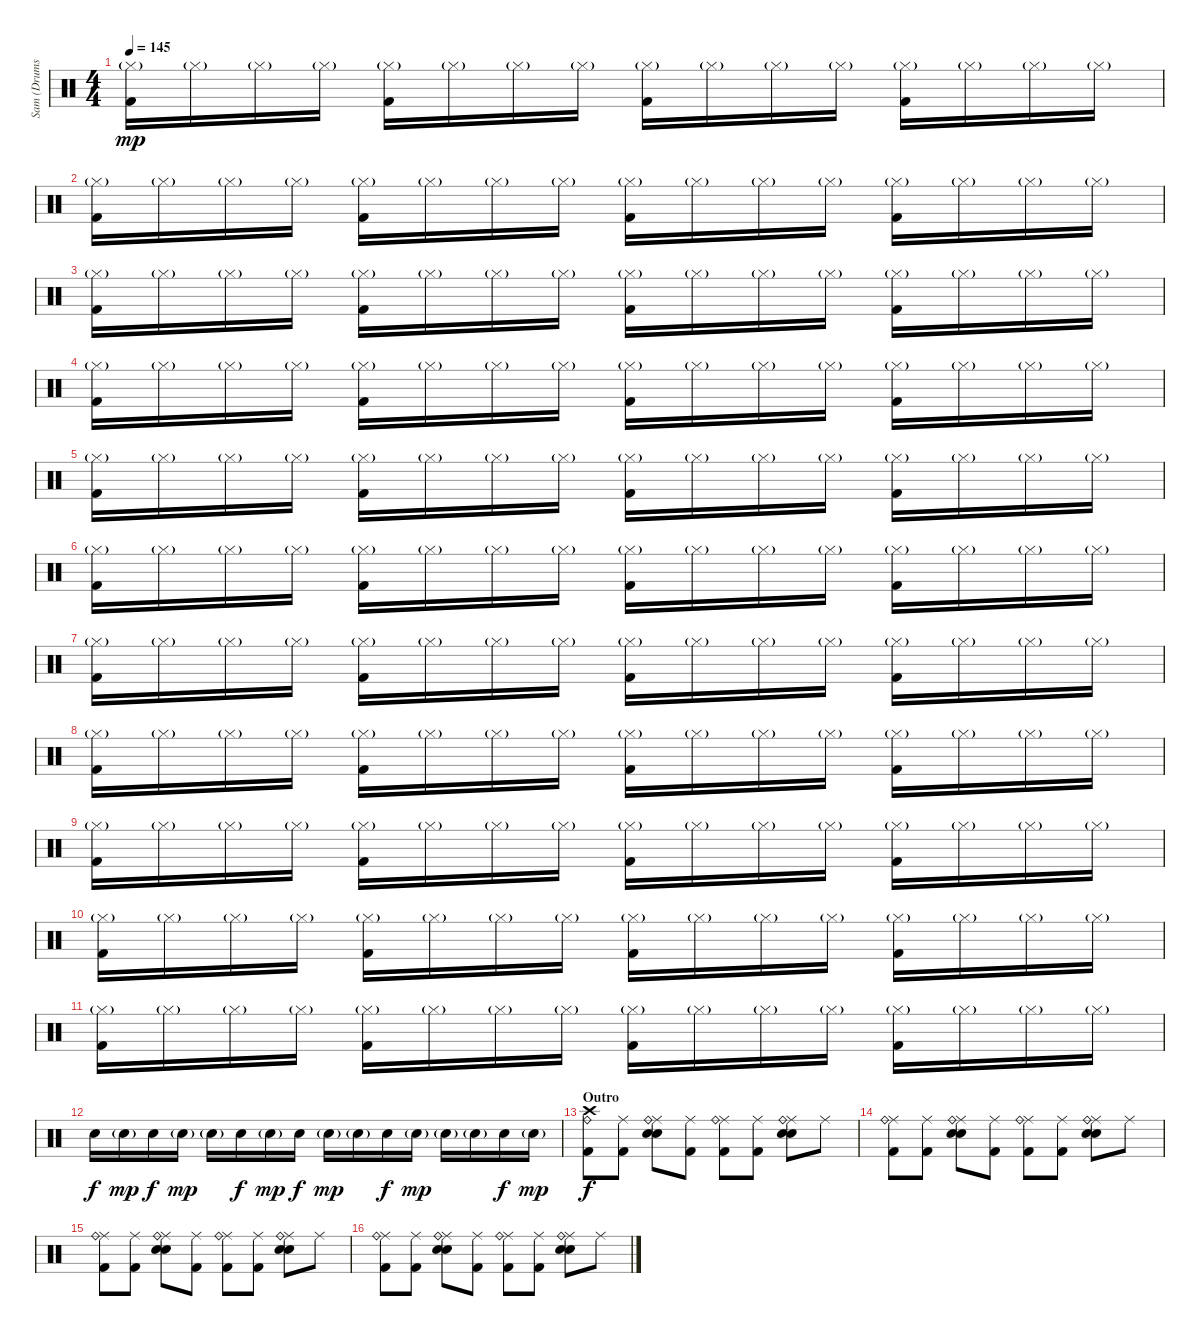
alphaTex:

\track ("Sam (Drums)" "Sam (Drums") {instrument percussion}
\staff {score}
\articulation defaults
\ts (4 4)
\tempo 145
\clef neutral
\ks c
("Hi-Hat (closed)"{g} "Kick (hit) 2").16{dy mp} "Hi-Hat (closed)"{g}.16 "Hi-Hat (closed)"{g}.16 "Hi-Hat (closed)"{g}.16 ("Hi-Hat (closed)"{g} "Kick (hit) 2").16 "Hi-Hat (closed)"{g}.16 "Hi-Hat (closed)"{g}.16 "Hi-Hat (closed)"{g}.16 ("Hi-Hat (closed)"{g} "Kick (hit) 2").16 "Hi-Hat (closed)"{g}.16 "Hi-Hat (closed)"{g}.16 "Hi-Hat (closed)"{g}.16 ("Hi-Hat (closed)"{g} "Kick (hit) 2").16 "Hi-Hat (closed)"{g}.16 "Hi-Hat (closed)"{g}.16 "Hi-Hat (closed)"{g}.16 |
("Hi-Hat (closed)"{g} "Kick (hit) 2").16 "Hi-Hat (closed)"{g}.16 "Hi-Hat (closed)"{g}.16 "Hi-Hat (closed)"{g}.16 ("Hi-Hat (closed)"{g} "Kick (hit) 2").16 "Hi-Hat (closed)"{g}.16 "Hi-Hat (closed)"{g}.16 "Hi-Hat (closed)"{g}.16 ("Hi-Hat (closed)"{g} "Kick (hit) 2").16 "Hi-Hat (closed)"{g}.16 "Hi-Hat (closed)"{g}.16 "Hi-Hat (closed)"{g}.16 ("Hi-Hat (closed)"{g} "Kick (hit) 2").16 "Hi-Hat (closed)"{g}.16 "Hi-Hat (closed)"{g}.16 "Hi-Hat (closed)"{g}.16 |
("Hi-Hat (closed)"{g} "Kick (hit) 2").16 "Hi-Hat (closed)"{g}.16 "Hi-Hat (closed)"{g}.16 "Hi-Hat (closed)"{g}.16 ("Hi-Hat (closed)"{g} "Kick (hit) 2").16 "Hi-Hat (closed)"{g}.16 "Hi-Hat (closed)"{g}.16 "Hi-Hat (closed)"{g}.16 ("Hi-Hat (closed)"{g} "Kick (hit) 2").16 "Hi-Hat (closed)"{g}.16 "Hi-Hat (closed)"{g}.16 "Hi-Hat (closed)"{g}.16 ("Hi-Hat (closed)"{g} "Kick (hit) 2").16 "Hi-Hat (closed)"{g}.16 "Hi-Hat (closed)"{g}.16 "Hi-Hat (closed)"{g}.16 |
("Hi-Hat (closed)"{g} "Kick (hit) 2").16 "Hi-Hat (closed)"{g}.16 "Hi-Hat (closed)"{g}.16 "Hi-Hat (closed)"{g}.16 ("Hi-Hat (closed)"{g} "Kick (hit) 2").16 "Hi-Hat (closed)"{g}.16 "Hi-Hat (closed)"{g}.16 "Hi-Hat (closed)"{g}.16 ("Hi-Hat (closed)"{g} "Kick (hit) 2").16 "Hi-Hat (closed)"{g}.16 "Hi-Hat (closed)"{g}.16 "Hi-Hat (closed)"{g}.16 ("Hi-Hat (closed)"{g} "Kick (hit) 2").16 "Hi-Hat (closed)"{g}.16 "Hi-Hat (closed)"{g}.16 "Hi-Hat (closed)"{g}.16 |
("Hi-Hat (closed)"{g} "Kick (hit) 2").16 "Hi-Hat (closed)"{g}.16 "Hi-Hat (closed)"{g}.16 "Hi-Hat (closed)"{g}.16 ("Hi-Hat (closed)"{g} "Kick (hit) 2").16 "Hi-Hat (closed)"{g}.16 "Hi-Hat (closed)"{g}.16 "Hi-Hat (closed)"{g}.16 ("Hi-Hat (closed)"{g} "Kick (hit) 2").16 "Hi-Hat (closed)"{g}.16 "Hi-Hat (closed)"{g}.16 "Hi-Hat (closed)"{g}.16 ("Hi-Hat (closed)"{g} "Kick (hit) 2").16 "Hi-Hat (closed)"{g}.16 "Hi-Hat (closed)"{g}.16 "Hi-Hat (closed)"{g}.16 |
("Hi-Hat (closed)"{g} "Kick (hit) 2").16 "Hi-Hat (closed)"{g}.16 "Hi-Hat (closed)"{g}.16 "Hi-Hat (closed)"{g}.16 ("Hi-Hat (closed)"{g} "Kick (hit) 2").16 "Hi-Hat (closed)"{g}.16 "Hi-Hat (closed)"{g}.16 "Hi-Hat (closed)"{g}.16 ("Hi-Hat (closed)"{g} "Kick (hit) 2").16 "Hi-Hat (closed)"{g}.16 "Hi-Hat (closed)"{g}.16 "Hi-Hat (closed)"{g}.16 ("Hi-Hat (closed)"{g} "Kick (hit) 2").16 "Hi-Hat (closed)"{g}.16 "Hi-Hat (closed)"{g}.16 "Hi-Hat (closed)"{g}.16 |
("Hi-Hat (closed)"{g} "Kick (hit) 2").16 "Hi-Hat (closed)"{g}.16 "Hi-Hat (closed)"{g}.16 "Hi-Hat (closed)"{g}.16 ("Hi-Hat (closed)"{g} "Kick (hit) 2").16 "Hi-Hat (closed)"{g}.16 "Hi-Hat (closed)"{g}.16 "Hi-Hat (closed)"{g}.16 ("Hi-Hat (closed)"{g} "Kick (hit) 2").16 "Hi-Hat (closed)"{g}.16 "Hi-Hat (closed)"{g}.16 "Hi-Hat (closed)"{g}.16 ("Hi-Hat (closed)"{g} "Kick (hit) 2").16 "Hi-Hat (closed)"{g}.16 "Hi-Hat (closed)"{g}.16 "Hi-Hat (closed)"{g}.16 |
("Hi-Hat (closed)"{g} "Kick (hit) 2").16 "Hi-Hat (closed)"{g}.16 "Hi-Hat (closed)"{g}.16 "Hi-Hat (closed)"{g}.16 ("Hi-Hat (closed)"{g} "Kick (hit) 2").16 "Hi-Hat (closed)"{g}.16 "Hi-Hat (closed)"{g}.16 "Hi-Hat (closed)"{g}.16 ("Hi-Hat (closed)"{g} "Kick (hit) 2").16 "Hi-Hat (closed)"{g}.16 "Hi-Hat (closed)"{g}.16 "Hi-Hat (closed)"{g}.16 ("Hi-Hat (closed)"{g} "Kick (hit) 2").16 "Hi-Hat (closed)"{g}.16 "Hi-Hat (closed)"{g}.16 "Hi-Hat (closed)"{g}.16 |
("Hi-Hat (closed)"{g} "Kick (hit) 2").16 "Hi-Hat (closed)"{g}.16 "Hi-Hat (closed)"{g}.16 "Hi-Hat (closed)"{g}.16 ("Hi-Hat (closed)"{g} "Kick (hit) 2").16 "Hi-Hat (closed)"{g}.16 "Hi-Hat (closed)"{g}.16 "Hi-Hat (closed)"{g}.16 ("Hi-Hat (closed)"{g} "Kick (hit) 2").16 "Hi-Hat (closed)"{g}.16 "Hi-Hat (closed)"{g}.16 "Hi-Hat (closed)"{g}.16 ("Hi-Hat (closed)"{g} "Kick (hit) 2").16 "Hi-Hat (closed)"{g}.16 "Hi-Hat (closed)"{g}.16 "Hi-Hat (closed)"{g}.16 |
("Hi-Hat (closed)"{g} "Kick (hit) 2").16 "Hi-Hat (closed)"{g}.16 "Hi-Hat (closed)"{g}.16 "Hi-Hat (closed)"{g}.16 ("Hi-Hat (closed)"{g} "Kick (hit) 2").16 "Hi-Hat (closed)"{g}.16 "Hi-Hat (closed)"{g}.16 "Hi-Hat (closed)"{g}.16 ("Hi-Hat (closed)"{g} "Kick (hit) 2").16 "Hi-Hat (closed)"{g}.16 "Hi-Hat (closed)"{g}.16 "Hi-Hat (closed)"{g}.16 ("Hi-Hat (closed)"{g} "Kick (hit) 2").16 "Hi-Hat (closed)"{g}.16 "Hi-Hat (closed)"{g}.16 "Hi-Hat (closed)"{g}.16 |
("Hi-Hat (closed)"{g} "Kick (hit) 2").16 "Hi-Hat (closed)"{g}.16 "Hi-Hat (closed)"{g}.16 "Hi-Hat (closed)"{g}.16 ("Hi-Hat (closed)"{g} "Kick (hit) 2").16 "Hi-Hat (closed)"{g}.16 "Hi-Hat (closed)"{g}.16 "Hi-Hat (closed)"{g}.16 ("Hi-Hat (closed)"{g} "Kick (hit) 2").16 "Hi-Hat (closed)"{g}.16 "Hi-Hat (closed)"{g}.16 "Hi-Hat (closed)"{g}.16 ("Hi-Hat (closed)"{g} "Kick (hit) 2").16 "Hi-Hat (closed)"{g}.16 "Hi-Hat (closed)"{g}.16 "Hi-Hat (closed)"{g}.16 |
"Snare (hit) 2".16{dy f} "Snare (hit) 2"{g}.16{dy mp} "Snare (hit) 2".16{dy f} "Snare (hit) 2"{g}.16{dy mp} "Snare (hit) 2"{g}.16 "Snare (hit) 2".16{dy f} "Snare (hit) 2"{g}.16{dy mp} "Snare (hit) 2".16{dy f} "Snare (hit) 2"{g}.16{dy mp} "Snare (hit) 2"{g}.16 "Snare (hit) 2".16{dy f} "Snare (hit) 2"{g}.16{dy mp} "Snare (hit) 2"{g}.16 "Snare (hit) 2"{g}.16 "Snare (hit) 2".16{dy f} "Snare (hit) 2"{g}.16{dy mp} |
\section ("" "Outro")
("Crash high (hit)" "Ride (bell)" "Kick (hit) 2").8{dy f} ("Ride (middle)" "Kick (hit) 2").8 ("Ride (middle)" "Ride (bell)" "Electric Snare (hit)" "Snare (hit) 2").8 ("Ride (middle)" "Kick (hit) 2").8 ("Ride (middle)" "Ride (bell)" "Kick (hit) 2").8 ("Ride (middle)" "Kick (hit) 2").8 ("Ride (middle)" "Ride (bell)" "Electric Snare (hit)" "Snare (hit) 2").8 "Ride (middle)".8 |
("Ride (middle)" "Ride (bell)" "Kick (hit) 2").8 ("Ride (middle)" "Kick (hit) 2").8 ("Ride (middle)" "Ride (bell)" "Electric Snare (hit)" "Snare (hit) 2").8 ("Ride (middle)" "Kick (hit) 2").8 ("Ride (middle)" "Ride (bell)" "Kick (hit) 2").8 ("Ride (middle)" "Kick (hit) 2").8 ("Ride (middle)" "Ride (bell)" "Electric Snare (hit)" "Snare (hit) 2").8 "Ride (middle)".8 |
("Ride (middle)" "Ride (bell)" "Kick (hit) 2").8 ("Ride (middle)" "Kick (hit) 2").8 ("Ride (middle)" "Ride (bell)" "Electric Snare (hit)" "Snare (hit) 2").8 ("Ride (middle)" "Kick (hit) 2").8 ("Ride (middle)" "Ride (bell)" "Kick (hit) 2").8 ("Ride (middle)" "Kick (hit) 2").8 ("Ride (middle)" "Ride (bell)" "Electric Snare (hit)" "Snare (hit) 2").8 "Ride (middle)".8 |
("Ride (middle)" "Ride (bell)" "Kick (hit) 2").8 ("Ride (middle)" "Kick (hit) 2").8 ("Ride (middle)" "Ride (bell)" "Electric Snare (hit)" "Snare (hit) 2").8 ("Ride (middle)" "Kick (hit) 2").8 ("Ride (middle)" "Ride (bell)" "Kick (hit) 2").8 ("Ride (middle)" "Kick (hit) 2").8 ("Ride (middle)" "Ride (bell)" "Electric Snare (hit)" "Snare (hit) 2").8 "Ride (middle)".8
